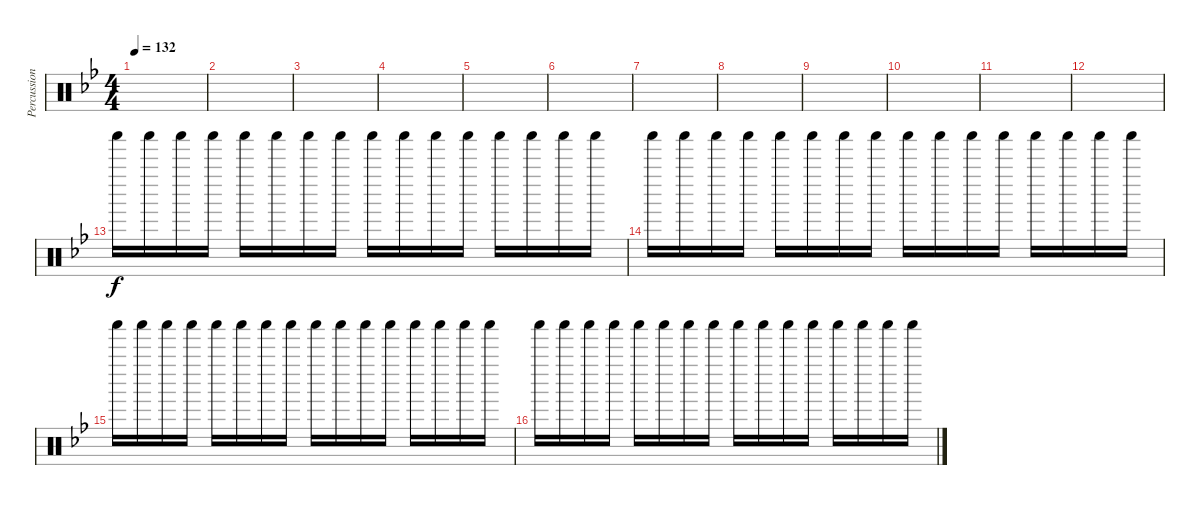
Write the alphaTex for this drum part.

\track ("Percussion" "Percussion") {instrument percussion}
\staff {score}
\articulation defaults
\ts (4 4)
\tempo 132
\clef neutral
\ks bb
|
|
|
|
|
|
|
|
|
|
|
|
"Shaker (hit)".16 "Shaker (hit)".16 "Shaker (hit)".16 "Shaker (hit)".16 "Shaker (hit)".16 "Shaker (hit)".16 "Shaker (hit)".16 "Shaker (hit)".16 "Shaker (hit)".16 "Shaker (hit)".16 "Shaker (hit)".16 "Shaker (hit)".16 "Shaker (hit)".16 "Shaker (hit)".16 "Shaker (hit)".16 "Shaker (hit)".16 |
"Shaker (hit)".16 "Shaker (hit)".16 "Shaker (hit)".16 "Shaker (hit)".16 "Shaker (hit)".16 "Shaker (hit)".16 "Shaker (hit)".16 "Shaker (hit)".16 "Shaker (hit)".16 "Shaker (hit)".16 "Shaker (hit)".16 "Shaker (hit)".16 "Shaker (hit)".16 "Shaker (hit)".16 "Shaker (hit)".16 "Shaker (hit)".16 |
"Shaker (hit)".16 "Shaker (hit)".16 "Shaker (hit)".16 "Shaker (hit)".16 "Shaker (hit)".16 "Shaker (hit)".16 "Shaker (hit)".16 "Shaker (hit)".16 "Shaker (hit)".16 "Shaker (hit)".16 "Shaker (hit)".16 "Shaker (hit)".16 "Shaker (hit)".16 "Shaker (hit)".16 "Shaker (hit)".16 "Shaker (hit)".16 |
"Shaker (hit)".16 "Shaker (hit)".16 "Shaker (hit)".16 "Shaker (hit)".16 "Shaker (hit)".16 "Shaker (hit)".16 "Shaker (hit)".16 "Shaker (hit)".16 "Shaker (hit)".16 "Shaker (hit)".16 "Shaker (hit)".16 "Shaker (hit)".16 "Shaker (hit)".16 "Shaker (hit)".16 "Shaker (hit)".16 "Shaker (hit)".16
